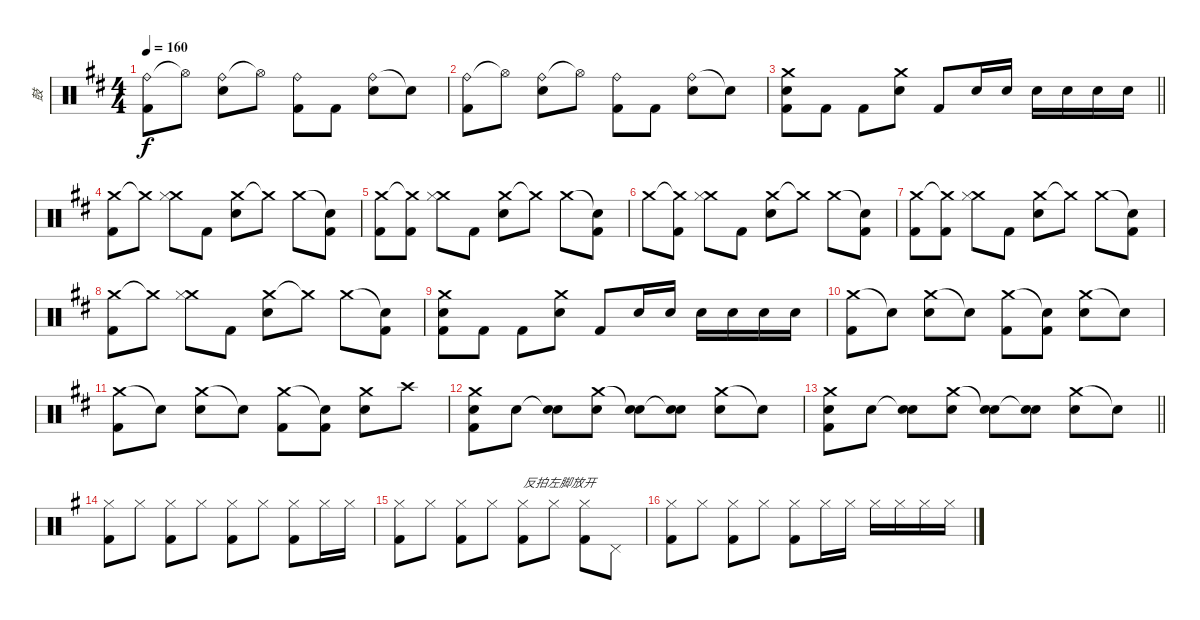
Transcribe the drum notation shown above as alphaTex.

\track ("鼓" "鼓") {instrument percussion}
\staff {score}
\articulation defaults
\ts (4 4)
\tempo 160
\clef neutral
\ks d
("Ride (bell)" "Kick (hit) 2").8{dy f} "Hi-Hat (open)"{t}.8 ("Ride (bell)" "Electric Snare (hit)").8 "Hi-Hat (open)"{t}.8 ("Ride (bell)" "Kick (hit) 2").8 "Kick (hit) 2".8 ("Ride (bell)" "Electric Snare (hit)").8 "Snare (hit)"{t}.8 |
("Ride (bell)" "Kick (hit) 2").8 "Hi-Hat (open)"{t}.8 ("Ride (bell)" "Electric Snare (hit)").8 "Hi-Hat (open)"{t}.8 ("Ride (bell)" "Kick (hit) 2").8 "Kick (hit) 2".8 ("Ride (bell)" "Electric Snare (hit)").8 "Snare (hit)"{t}.8 |
\barLineRight lightlight
("Crash medium (hit)" "Electric Snare (hit)" "Kick (hit) 2").8 "Kick (hit) 2".8 "Kick (hit) 2".8 ("Crash medium (hit)" "Electric Snare (hit)").8 "Kick (hit) 2".8 "Electric Snare (hit)".16 "Electric Snare (hit)".16 "Electric Snare (hit)".16 "Electric Snare (hit)".16 "Electric Snare (hit)".16 "Electric Snare (hit)".16 |
("Crash medium (hit)" "Kick (hit) 2").8 "Crash medium (hit)"{t}.8 ("Crash medium (hit)" "Hi-Hat (closed)").8 "Kick (hit) 2".8 ("Crash medium (hit)" "Electric Snare (hit)").8 "Crash medium (hit)"{t}.8 "Crash medium (hit)".8 ("Snare (hit)"{t} "Kick (hit) 2").8 |
("Crash medium (hit)" "Kick (hit) 2").8 ("Crash medium (hit)"{t} "Kick (hit) 2").8 ("Crash medium (hit)" "Hi-Hat (closed)").8 "Kick (hit) 2".8 ("Crash medium (hit)" "Electric Snare (hit)").8 "Crash medium (hit)"{t}.8 "Crash medium (hit)".8 ("Snare (hit)"{t} "Kick (hit) 2").8 |
"Crash medium (hit)".8 ("Crash medium (hit)"{t} "Kick (hit) 2").8 ("Crash medium (hit)" "Hi-Hat (closed)").8 "Kick (hit) 2".8 ("Crash medium (hit)" "Electric Snare (hit)").8 "Crash medium (hit)"{t}.8 "Crash medium (hit)".8 ("Snare (hit)"{t} "Kick (hit) 2").8 |
("Crash medium (hit)" "Kick (hit) 2").8 ("Crash medium (hit)"{t} "Kick (hit) 2").8 ("Crash medium (hit)" "Hi-Hat (closed)").8 "Kick (hit) 2".8 ("Crash medium (hit)" "Electric Snare (hit)").8 "Crash medium (hit)"{t}.8 "Crash medium (hit)".8 ("Snare (hit)"{t} "Kick (hit) 2").8 |
("Crash medium (hit)" "Kick (hit) 2").8 "Crash medium (hit)"{t}.8 ("Crash medium (hit)" "Hi-Hat (closed)").8 "Kick (hit) 2".8 ("Crash medium (hit)" "Electric Snare (hit)").8 "Crash medium (hit)"{t}.8 "Crash medium (hit)".8 ("Snare (hit)"{t} "Kick (hit) 2").8 |
("Crash medium (hit)" "Electric Snare (hit)" "Kick (hit) 2").8 "Kick (hit) 2".8 "Kick (hit) 2".8 ("Crash medium (hit)" "Electric Snare (hit)").8 "Kick (hit) 2".8 "Electric Snare (hit)".16 "Electric Snare (hit)".16 "Electric Snare (hit)".16 "Electric Snare (hit)".16 "Electric Snare (hit)".16 "Electric Snare (hit)".16 |
("Crash medium (hit)" "Kick (hit) 2").8 "Snare (hit)"{t}.8 ("Crash medium (hit)" "Electric Snare (hit)").8 "Snare (hit)"{t}.8 ("Crash medium (hit)" "Kick (hit) 2").8 ("Snare (hit)"{t} "Kick (hit) 2").8 ("Crash medium (hit)" "Electric Snare (hit)").8 "Snare (hit)"{t}.8 |
("Crash medium (hit)" "Kick (hit) 2").8 "Snare (hit)"{t}.8 ("Crash medium (hit)" "Electric Snare (hit)").8 "Snare (hit)"{t}.8 ("Crash medium (hit)" "Kick (hit) 2").8 ("Snare (hit)"{t} "Kick (hit) 2").8 ("Crash medium (hit)" "Electric Snare (hit)").8 "Crash high (hit)".8 |
("Crash medium (hit)" "Electric Snare (hit)" "Kick (hit) 2").8 "Electric Snare (hit)".8 ("Snare (hit)"{t} "Electric Snare (hit)").8 ("Crash medium (hit)" "Electric Snare (hit)").8 ("Snare (hit)"{t} "Electric Snare (hit)").8 ("Snare (hit)"{t} "Electric Snare (hit)").8 ("Crash medium (hit)" "Electric Snare (hit)").8 "Snare (hit)"{t}.8 |
\barLineRight lightlight
("Crash medium (hit)" "Electric Snare (hit)" "Kick (hit) 2").8 "Electric Snare (hit)".8 ("Snare (hit)"{t} "Electric Snare (hit)").8 ("Crash medium (hit)" "Electric Snare (hit)").8 ("Snare (hit)"{t} "Electric Snare (hit)").8 ("Snare (hit)"{t} "Electric Snare (hit)").8 ("Crash medium (hit)" "Electric Snare (hit)").8 "Snare (hit)"{t}.8 |
\ks g
("Hi-Hat (closed)" "Kick (hit) 2").8 "Hi-Hat (closed)".8 ("Hi-Hat (closed)" "Kick (hit) 2").8 "Hi-Hat (closed)".8 ("Hi-Hat (closed)" "Kick (hit) 2").8 "Hi-Hat (closed)".8 ("Hi-Hat (closed)" "Kick (hit) 2").8 "Hi-Hat (closed)".16 "Hi-Hat (closed)".16 |
("Hi-Hat (closed)" "Kick (hit) 2").8 "Hi-Hat (closed)".8 ("Hi-Hat (closed)" "Kick (hit) 2").8 "Hi-Hat (closed)".8 ("Hi-Hat (closed)" "Kick (hit) 2").8{txt "反拍左脚放开"} "Hi-Hat (closed)".8 ("Hi-Hat (closed)" "Kick (hit) 2").8 "Pedal Hi-Hat (hit)".8 |
("Hi-Hat (closed)" "Kick (hit) 2").8 "Hi-Hat (closed)".8 ("Hi-Hat (closed)" "Kick (hit) 2").8 "Hi-Hat (closed)".8 ("Hi-Hat (closed)" "Kick (hit) 2").8 "Hi-Hat (closed)".16 "Hi-Hat (closed)".16 "Hi-Hat (closed)".16 "Hi-Hat (closed)".16 "Hi-Hat (closed)".16 "Hi-Hat (closed)".16
